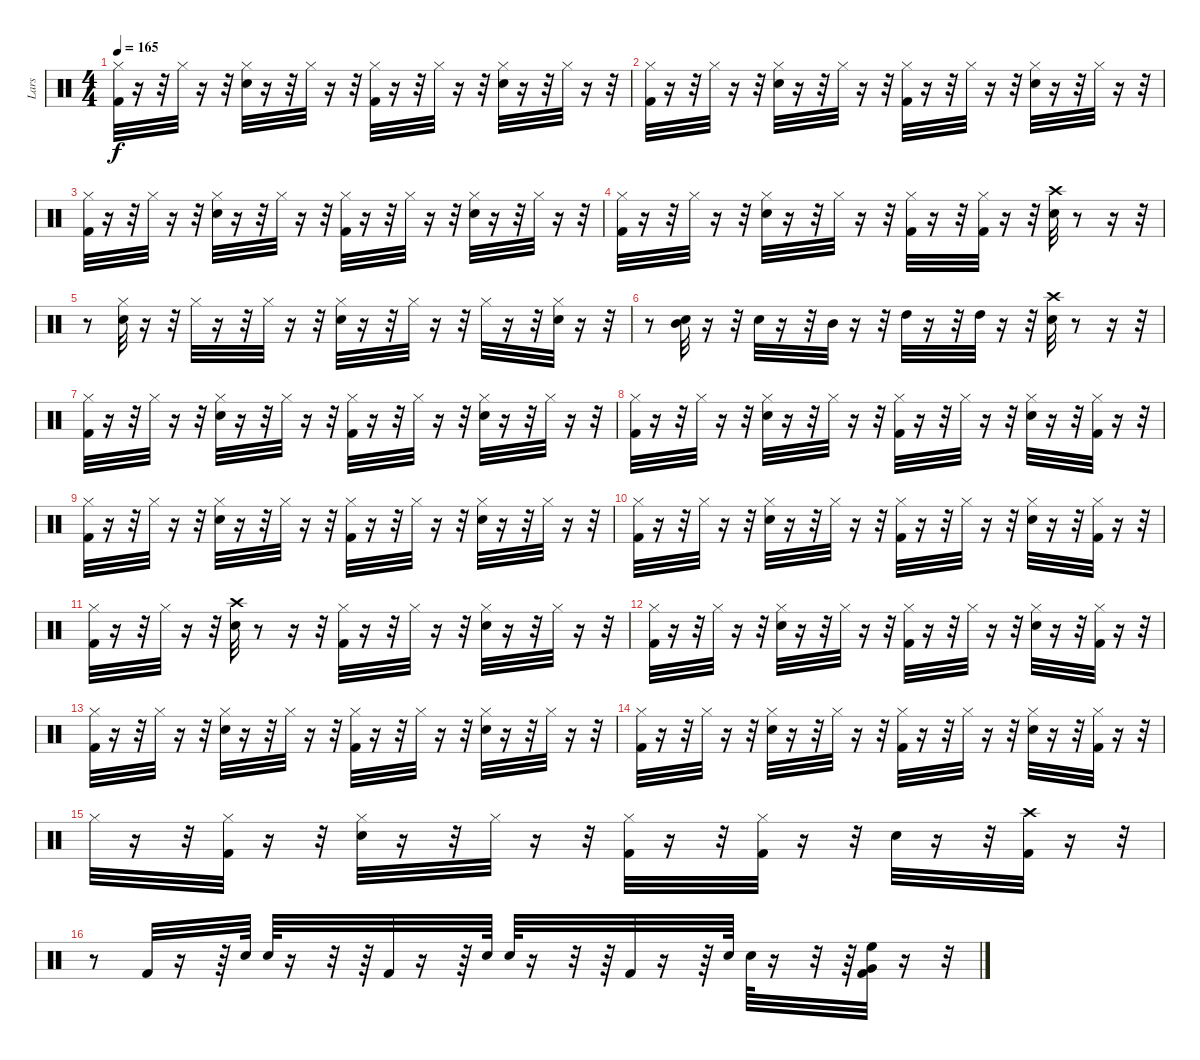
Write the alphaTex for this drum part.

\track ("Lars" "Lars") {instrument percussion}
\staff {score}
\articulation defaults
\ts (4 4)
\tempo 165
\clef neutral
\ks c
("Hi-Hat (closed)" "Kick (hit) 2").32{dy f} r.16 r.32 "Hi-Hat (closed)".32 r.16 r.32 ("Snare (hit) 2" "Hi-Hat (closed)").32 r.16 r.32 "Hi-Hat (closed)".32 r.16 r.32 ("Hi-Hat (closed)" "Kick (hit) 2").32 r.16 r.32 "Hi-Hat (closed)".32 r.16 r.32 ("Snare (hit) 2" "Hi-Hat (closed)").32 r.16 r.32 "Hi-Hat (closed)".32 r.16 r.32 |
("Hi-Hat (closed)" "Kick (hit) 2").32 r.16 r.32 "Hi-Hat (closed)".32 r.16 r.32 ("Snare (hit) 2" "Hi-Hat (closed)").32 r.16 r.32 "Hi-Hat (closed)".32 r.16 r.32 ("Hi-Hat (closed)" "Kick (hit) 2").32 r.16 r.32 "Hi-Hat (closed)".32 r.16 r.32 ("Snare (hit) 2" "Hi-Hat (closed)").32 r.16 r.32 "Hi-Hat (closed)".32 r.16 r.32 |
("Hi-Hat (closed)" "Kick (hit) 2").32 r.16 r.32 "Hi-Hat (closed)".32 r.16 r.32 ("Snare (hit) 2" "Hi-Hat (closed)").32 r.16 r.32 "Hi-Hat (closed)".32 r.16 r.32 ("Hi-Hat (closed)" "Kick (hit) 2").32 r.16 r.32 "Hi-Hat (closed)".32 r.16 r.32 ("Snare (hit) 2" "Hi-Hat (closed)").32 r.16 r.32 "Hi-Hat (closed)".32 r.16 r.32 |
("Kick (hit) 2" "Hi-Hat (closed)").32 r.16 r.32 "Hi-Hat (closed)".32 r.16 r.32 ("Snare (hit) 2" "Hi-Hat (closed)").32 r.16 r.32 "Hi-Hat (closed)".32 r.16 r.32 ("Kick (hit) 2" "Hi-Hat (closed)").32 r.16 r.32 ("Kick (hit) 2" "Hi-Hat (closed)").32 r.16 r.32 ("Crash high (hit)" "Snare (hit) 2").32 r.8 r.16 r.32 |
r.8 ("Snare (hit) 2" "Hi-Hat (closed)").32 r.16 r.32 "Hi-Hat (closed)".32 r.16 r.32 "Hi-Hat (closed)".32 r.16 r.32 ("Hi-Hat (closed)" "Snare (hit) 2").32 r.16 r.32 "Hi-Hat (closed)".32 r.16 r.32 "Hi-Hat (closed)".32 r.16 r.32 ("Snare (hit) 2" "Hi-Hat (closed)").32 r.16 r.32 |
r.8 ("Mid Tom (hit)" "Snare (hit) 2").32 r.16 r.32 "Snare (hit) 2".32 r.16 r.32 "Mid Tom (hit)".32 r.16 r.32 "High Tom (hit)".32 r.16 r.32 "High Tom (hit)".32 r.16 r.32 ("Crash high (hit)" "Snare (hit) 2").32 r.8 r.16 r.32 |
("Hi-Hat (closed)" "Kick (hit) 2").32 r.16 r.32 "Hi-Hat (closed)".32 r.16 r.32 ("Snare (hit) 2" "Hi-Hat (closed)").32 r.16 r.32 "Hi-Hat (closed)".32 r.16 r.32 ("Hi-Hat (closed)" "Kick (hit) 2").32 r.16 r.32 "Hi-Hat (closed)".32 r.16 r.32 ("Snare (hit) 2" "Hi-Hat (closed)").32 r.16 r.32 "Hi-Hat (closed)".32 r.16 r.32 |
("Hi-Hat (closed)" "Kick (hit) 2").32 r.16 r.32 "Hi-Hat (closed)".32 r.16 r.32 ("Snare (hit) 2" "Hi-Hat (closed)").32 r.16 r.32 "Hi-Hat (closed)".32 r.16 r.32 ("Hi-Hat (closed)" "Kick (hit) 2").32 r.16 r.32 "Hi-Hat (closed)".32 r.16 r.32 ("Snare (hit) 2" "Hi-Hat (closed)").32 r.16 r.32 ("Kick (hit) 2" "Hi-Hat (closed)").32 r.16 r.32 |
("Hi-Hat (closed)" "Kick (hit) 2").32 r.16 r.32 "Hi-Hat (closed)".32 r.16 r.32 ("Snare (hit) 2" "Hi-Hat (closed)").32 r.16 r.32 "Hi-Hat (closed)".32 r.16 r.32 ("Hi-Hat (closed)" "Kick (hit) 2").32 r.16 r.32 "Hi-Hat (closed)".32 r.16 r.32 ("Snare (hit) 2" "Hi-Hat (closed)").32 r.16 r.32 "Hi-Hat (closed)".32 r.16 r.32 |
("Hi-Hat (closed)" "Kick (hit) 2").32 r.16 r.32 "Hi-Hat (closed)".32 r.16 r.32 ("Snare (hit) 2" "Hi-Hat (closed)").32 r.16 r.32 "Hi-Hat (closed)".32 r.16 r.32 ("Hi-Hat (closed)" "Kick (hit) 2").32 r.16 r.32 "Hi-Hat (closed)".32 r.16 r.32 ("Snare (hit) 2" "Hi-Hat (closed)").32 r.16 r.32 ("Kick (hit) 2" "Hi-Hat (closed)").32 r.16 r.32 |
("Kick (hit) 2" "Hi-Hat (closed)").32 r.16 r.32 "Hi-Hat (closed)".32 r.16 r.32 ("Crash high (hit)" "Snare (hit) 2").32 r.8 r.16 r.32 ("Hi-Hat (closed)" "Kick (hit) 2").32 r.16 r.32 "Hi-Hat (closed)".32 r.16 r.32 ("Snare (hit) 2" "Hi-Hat (closed)").32 r.16 r.32 "Hi-Hat (closed)".32 r.16 r.32 |
("Hi-Hat (closed)" "Kick (hit) 2").32 r.16 r.32 "Hi-Hat (closed)".32 r.16 r.32 ("Snare (hit) 2" "Hi-Hat (closed)").32 r.16 r.32 "Hi-Hat (closed)".32 r.16 r.32 ("Hi-Hat (closed)" "Kick (hit) 2").32 r.16 r.32 "Hi-Hat (closed)".32 r.16 r.32 ("Snare (hit) 2" "Hi-Hat (closed)").32 r.16 r.32 ("Kick (hit) 2" "Hi-Hat (closed)").32 r.16 r.32 |
("Hi-Hat (closed)" "Kick (hit) 2").32 r.16 r.32 "Hi-Hat (closed)".32 r.16 r.32 ("Snare (hit) 2" "Hi-Hat (closed)").32 r.16 r.32 "Hi-Hat (closed)".32 r.16 r.32 ("Hi-Hat (closed)" "Kick (hit) 2").32 r.16 r.32 "Hi-Hat (closed)".32 r.16 r.32 ("Snare (hit) 2" "Hi-Hat (closed)").32 r.16 r.32 "Hi-Hat (closed)".32 r.16 r.32 |
("Hi-Hat (closed)" "Kick (hit) 2").32 r.16 r.32 "Hi-Hat (closed)".32 r.16 r.32 ("Snare (hit) 2" "Hi-Hat (closed)").32 r.16 r.32 "Hi-Hat (closed)".32 r.16 r.32 ("Hi-Hat (closed)" "Kick (hit) 2").32 r.16 r.32 "Hi-Hat (closed)".32 r.16 r.32 ("Snare (hit) 2" "Hi-Hat (closed)").32 r.16 r.32 ("Kick (hit) 2" "Hi-Hat (closed)").32 r.16 r.32 |
"Hi-Hat (closed)".32 r.16 r.32 ("Kick (hit) 2" "Hi-Hat (closed)").32 r.16 r.32 ("Snare (hit) 2" "Hi-Hat (closed)").32 r.16 r.32 "Hi-Hat (closed)".32 r.16 r.32 ("Hi-Hat (closed)" "Kick (hit) 2").32 r.16 r.32 ("Hi-Hat (closed)" "Kick (hit) 2").32 r.16 r.32 "Snare (hit) 2".32 r.16 r.32 ("Crash high (hit)" "Kick (hit) 2").32 r.16 r.32 |
r.8 "Kick (hit) 2".32 r.16 r.64 "Snare (hit) 2".64 "Snare (hit) 2".64 r.16 r.32 r.64 "Kick (hit) 2".32 r.16 r.64 "Snare (hit) 2".64 "Snare (hit) 2".64 r.16 r.32 r.64 "Kick (hit) 2".32 r.16 r.64 "Snare (hit) 2".64 "Snare (hit) 2".64 r.16 r.32 r.64 ("Very Low Tom (hit)" "High Floor Tom (hit)" "Kick (hit) 2").32 r.16 r.32
